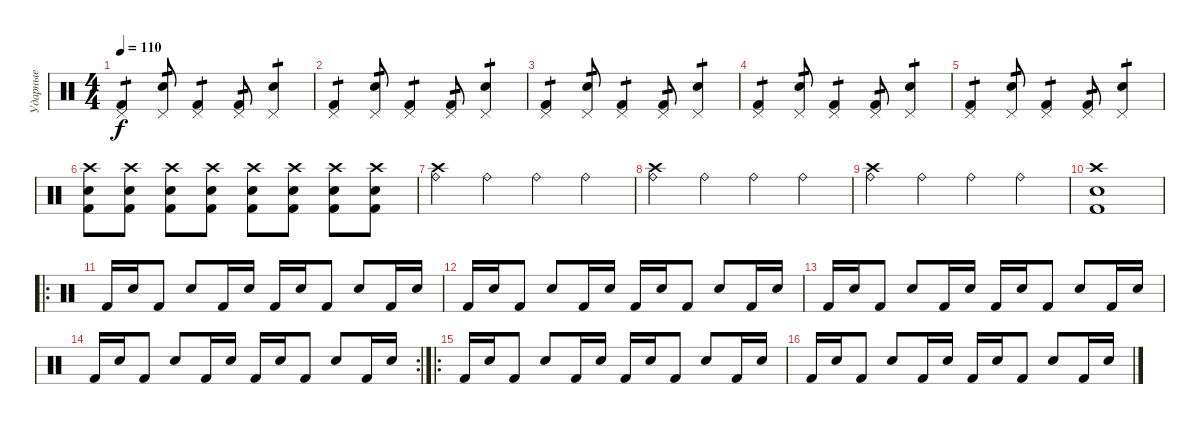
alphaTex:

\track ("Ударные" "Ударные") {instrument percussion}
\staff {score}
\articulation defaults
\ts (4 4)
\tempo 110
\clef neutral
\ks c
("Pedal Hi-Hat (hit)" "Kick (hit) 2").4{tp 1 dy f} ("Pedal Hi-Hat (hit)" "Electric Snare (hit)").8{tp 1} ("Pedal Hi-Hat (hit)" "Kick (hit) 2").4{tp 1} ("Pedal Hi-Hat (hit)" "Kick (hit) 2").8{tp 1} ("Pedal Hi-Hat (hit)" "Electric Snare (hit)").4{tp 1} |
("Pedal Hi-Hat (hit)" "Kick (hit) 2").4{tp 1} ("Pedal Hi-Hat (hit)" "Electric Snare (hit)").8{tp 1} ("Pedal Hi-Hat (hit)" "Kick (hit) 2").4{tp 1} ("Pedal Hi-Hat (hit)" "Kick (hit) 2").8{tp 1} ("Pedal Hi-Hat (hit)" "Electric Snare (hit)").4{tp 1} |
("Pedal Hi-Hat (hit)" "Kick (hit) 2").4{tp 1} ("Pedal Hi-Hat (hit)" "Electric Snare (hit)").8{tp 1} ("Pedal Hi-Hat (hit)" "Kick (hit) 2").4{tp 1} ("Pedal Hi-Hat (hit)" "Kick (hit) 2").8{tp 1} ("Pedal Hi-Hat (hit)" "Electric Snare (hit)").4{tp 1} |
("Pedal Hi-Hat (hit)" "Kick (hit) 2").4{tp 1} ("Pedal Hi-Hat (hit)" "Electric Snare (hit)").8{tp 1} ("Pedal Hi-Hat (hit)" "Kick (hit) 2").4{tp 1} ("Pedal Hi-Hat (hit)" "Kick (hit) 2").8{tp 1} ("Pedal Hi-Hat (hit)" "Electric Snare (hit)").4{tp 1} |
("Pedal Hi-Hat (hit)" "Kick (hit) 2").4{tp 1} ("Pedal Hi-Hat (hit)" "Electric Snare (hit)").8{tp 1} ("Pedal Hi-Hat (hit)" "Kick (hit) 2").4{tp 1} ("Pedal Hi-Hat (hit)" "Kick (hit) 2").8{tp 1} ("Pedal Hi-Hat (hit)" "Electric Snare (hit)").4{tp 1} |
("Crash high (hit)" "Electric Snare (hit)" "Kick (hit) 2").8 ("Crash high (hit)" "Electric Snare (hit)" "Kick (hit) 2").8 ("Crash high (hit)" "Electric Snare (hit)" "Kick (hit) 2").8 ("Crash high (hit)" "Electric Snare (hit)" "Kick (hit) 2").8 ("Crash high (hit)" "Electric Snare (hit)" "Kick (hit) 2").8 ("Crash high (hit)" "Electric Snare (hit)" "Kick (hit) 2").8 ("Crash high (hit)" "Electric Snare (hit)" "Kick (hit) 2").8 ("Crash high (hit)" "Electric Snare (hit)" "Kick (hit) 2").8 |
("Crash high (hit)" "Ride (bell)").4 "Ride (bell)".4 "Ride (bell)".4 "Ride (bell)".4 |
("Crash high (hit)" "Ride (bell)").4 "Ride (bell)".4 "Ride (bell)".4 "Ride (bell)".4 |
("Crash high (hit)" "Ride (bell)").4 "Ride (bell)".4 "Ride (bell)".4 "Ride (bell)".4 |
("Crash high (hit)" "Electric Snare (hit)" "Kick (hit) 2").1 |
\ro "Kick (hit) 2".16 "Electric Snare (hit)".16 "Kick (hit) 2".8 "Electric Snare (hit)".8 "Kick (hit) 2".16 "Electric Snare (hit)".16 "Kick (hit) 2".16 "Electric Snare (hit)".16 "Kick (hit) 2".8 "Electric Snare (hit)".8 "Kick (hit) 2".16 "Electric Snare (hit)".16
|
"Kick (hit) 2".16 "Electric Snare (hit)".16 "Kick (hit) 2".8 "Electric Snare (hit)".8 "Kick (hit) 2".16 "Electric Snare (hit)".16 "Kick (hit) 2".16 "Electric Snare (hit)".16 "Kick (hit) 2".8 "Electric Snare (hit)".8 "Kick (hit) 2".16 "Electric Snare (hit)".16 |
"Kick (hit) 2".16 "Electric Snare (hit)".16 "Kick (hit) 2".8 "Electric Snare (hit)".8 "Kick (hit) 2".16 "Electric Snare (hit)".16 "Kick (hit) 2".16 "Electric Snare (hit)".16 "Kick (hit) 2".8 "Electric Snare (hit)".8 "Kick (hit) 2".16 "Electric Snare (hit)".16 |
\rc 2 "Kick (hit) 2".16 "Electric Snare (hit)".16 "Kick (hit) 2".8 "Electric Snare (hit)".8 "Kick (hit) 2".16 "Electric Snare (hit)".16 "Kick (hit) 2".16 "Electric Snare (hit)".16 "Kick (hit) 2".8 "Electric Snare (hit)".8 "Kick (hit) 2".16 "Electric Snare (hit)".16
|
\ro "Kick (hit) 2".16 "Electric Snare (hit)".16 "Kick (hit) 2".8 "Electric Snare (hit)".8 "Kick (hit) 2".16 "Electric Snare (hit)".16 "Kick (hit) 2".16 "Electric Snare (hit)".16 "Kick (hit) 2".8 "Electric Snare (hit)".8 "Kick (hit) 2".16 "Electric Snare (hit)".16
|
"Kick (hit) 2".16 "Electric Snare (hit)".16 "Kick (hit) 2".8 "Electric Snare (hit)".8 "Kick (hit) 2".16 "Electric Snare (hit)".16 "Kick (hit) 2".16 "Electric Snare (hit)".16 "Kick (hit) 2".8 "Electric Snare (hit)".8 "Kick (hit) 2".16 "Electric Snare (hit)".16
